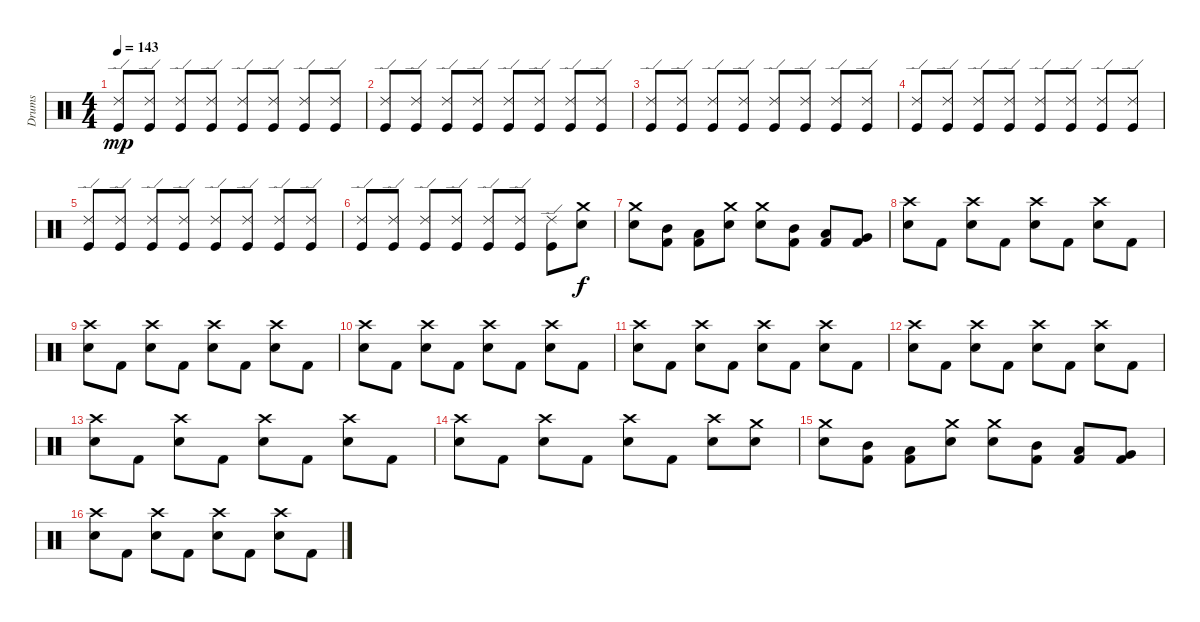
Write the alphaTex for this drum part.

\track ("Drums" "Drums") {instrument percussion}
\staff {score}
\articulation defaults
\ts (4 4)
\tempo 143
\clef neutral
\ks c
("Ride (edge) 2" "Kick (hit)").8{dy mp} ("Ride (edge) 2" "Kick (hit)").8 ("Ride (edge) 2" "Kick (hit)").8 ("Ride (edge) 2" "Kick (hit)").8 ("Ride (edge) 2" "Kick (hit)").8 ("Ride (edge) 2" "Kick (hit)").8 ("Ride (edge) 2" "Kick (hit)").8 ("Ride (edge) 2" "Kick (hit)").8 |
("Ride (edge) 2" "Kick (hit)").8 ("Ride (edge) 2" "Kick (hit)").8 ("Ride (edge) 2" "Kick (hit)").8 ("Ride (edge) 2" "Kick (hit)").8 ("Ride (edge) 2" "Kick (hit)").8 ("Ride (edge) 2" "Kick (hit)").8 ("Ride (edge) 2" "Kick (hit)").8 ("Ride (edge) 2" "Kick (hit)").8 |
("Ride (edge) 2" "Kick (hit)").8 ("Ride (edge) 2" "Kick (hit)").8 ("Ride (edge) 2" "Kick (hit)").8 ("Ride (edge) 2" "Kick (hit)").8 ("Ride (edge) 2" "Kick (hit)").8 ("Ride (edge) 2" "Kick (hit)").8 ("Ride (edge) 2" "Kick (hit)").8 ("Ride (edge) 2" "Kick (hit)").8 |
("Ride (edge) 2" "Kick (hit)").8 ("Ride (edge) 2" "Kick (hit)").8 ("Ride (edge) 2" "Kick (hit)").8 ("Ride (edge) 2" "Kick (hit)").8 ("Ride (edge) 2" "Kick (hit)").8 ("Ride (edge) 2" "Kick (hit)").8 ("Ride (edge) 2" "Kick (hit)").8 ("Ride (edge) 2" "Kick (hit)").8 |
("Ride (edge) 2" "Kick (hit)").8 ("Ride (edge) 2" "Kick (hit)").8 ("Ride (edge) 2" "Kick (hit)").8 ("Ride (edge) 2" "Kick (hit)").8 ("Ride (edge) 2" "Kick (hit)").8 ("Ride (edge) 2" "Kick (hit)").8 ("Ride (edge) 2" "Kick (hit)").8 ("Ride (edge) 2" "Kick (hit)").8 |
("Ride (edge) 2" "Kick (hit)").8 ("Ride (edge) 2" "Kick (hit)").8 ("Ride (edge) 2" "Kick (hit)").8 ("Ride (edge) 2" "Kick (hit)").8 ("Ride (edge) 2" "Kick (hit)").8 ("Ride (edge) 2" "Kick (hit)").8 ("Ride (edge) 2" "Kick (hit)").8 ("Crash medium (hit)" "Electric Snare (hit)").8{dy f} |
("Crash medium (hit)" "Electric Snare (hit)").8 ("Mid Tom (hit)" "Kick (hit) 2").8 ("Low Tom (hit)" "Kick (hit) 2").8 ("Crash medium (hit)" "Electric Snare (hit)").8 ("Crash medium (hit)" "Electric Snare (hit)").8 ("Mid Tom (hit)" "Kick (hit) 2").8 ("Low Tom (hit)" "Kick (hit) 2").8 ("Very Low Tom (hit)" "Kick (hit) 2").8 |
("Crash high (hit)" "Electric Snare (hit)").8 "Kick (hit) 2".8 ("Crash high (hit)" "Electric Snare (hit)").8 "Kick (hit) 2".8 ("Crash high (hit)" "Electric Snare (hit)").8 "Kick (hit) 2".8 ("Crash high (hit)" "Electric Snare (hit)").8 "Kick (hit) 2".8 |
("Crash high (hit)" "Electric Snare (hit)").8 "Kick (hit) 2".8 ("Crash high (hit)" "Electric Snare (hit)").8 "Kick (hit) 2".8 ("Crash high (hit)" "Electric Snare (hit)").8 "Kick (hit) 2".8 ("Crash high (hit)" "Electric Snare (hit)").8 "Kick (hit) 2".8 |
("Crash high (hit)" "Electric Snare (hit)").8 "Kick (hit) 2".8 ("Crash high (hit)" "Electric Snare (hit)").8 "Kick (hit) 2".8 ("Crash high (hit)" "Electric Snare (hit)").8 "Kick (hit) 2".8 ("Crash high (hit)" "Electric Snare (hit)").8 "Kick (hit) 2".8 |
("Crash high (hit)" "Electric Snare (hit)").8 "Kick (hit) 2".8 ("Crash high (hit)" "Electric Snare (hit)").8 "Kick (hit) 2".8 ("Crash high (hit)" "Electric Snare (hit)").8 "Kick (hit) 2".8 ("Crash high (hit)" "Electric Snare (hit)").8 "Kick (hit) 2".8 |
("Crash high (hit)" "Electric Snare (hit)").8 "Kick (hit) 2".8 ("Crash high (hit)" "Electric Snare (hit)").8 "Kick (hit) 2".8 ("Crash high (hit)" "Electric Snare (hit)").8 "Kick (hit) 2".8 ("Crash high (hit)" "Electric Snare (hit)").8 "Kick (hit) 2".8 |
("Crash high (hit)" "Electric Snare (hit)").8 "Kick (hit) 2".8 ("Crash high (hit)" "Electric Snare (hit)").8 "Kick (hit) 2".8 ("Crash high (hit)" "Electric Snare (hit)").8 "Kick (hit) 2".8 ("Crash high (hit)" "Electric Snare (hit)").8 "Kick (hit) 2".8 |
("Crash high (hit)" "Electric Snare (hit)").8 "Kick (hit) 2".8 ("Crash high (hit)" "Electric Snare (hit)").8 "Kick (hit) 2".8 ("Crash high (hit)" "Electric Snare (hit)").8 "Kick (hit) 2".8 ("Crash high (hit)" "Electric Snare (hit)").8 ("Crash medium (hit)" "Electric Snare (hit)").8 |
("Crash medium (hit)" "Electric Snare (hit)").8 ("Mid Tom (hit)" "Kick (hit) 2").8 ("Low Tom (hit)" "Kick (hit) 2").8 ("Crash medium (hit)" "Electric Snare (hit)").8 ("Crash medium (hit)" "Electric Snare (hit)").8 ("Mid Tom (hit)" "Kick (hit) 2").8 ("Low Tom (hit)" "Kick (hit) 2").8 ("Very Low Tom (hit)" "Kick (hit) 2").8 |
("Crash high (hit)" "Electric Snare (hit)").8 "Kick (hit) 2".8 ("Crash high (hit)" "Electric Snare (hit)").8 "Kick (hit) 2".8 ("Crash high (hit)" "Electric Snare (hit)").8 "Kick (hit) 2".8 ("Crash high (hit)" "Electric Snare (hit)").8 "Kick (hit) 2".8
